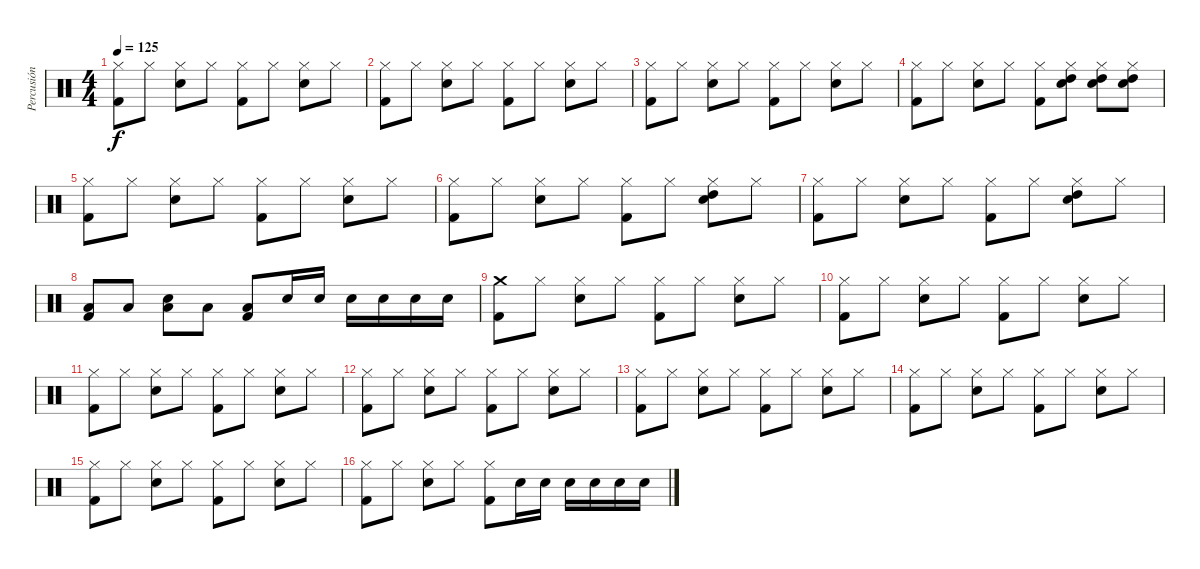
\track ("Percusión" "Percusión") {instrument percussion}
\staff {score}
\articulation defaults
\ts (4 4)
\tempo 125
\clef neutral
\ks c
("Hi-Hat (closed)" "Kick (hit) 2").8{dy f} "Hi-Hat (closed)".8 ("Hi-Hat (closed)" "Snare (hit) 2").8 "Hi-Hat (closed)".8 ("Hi-Hat (closed)" "Kick (hit) 2").8 "Hi-Hat (closed)".8 ("Hi-Hat (closed)" "Snare (hit) 2").8 "Hi-Hat (closed)".8 |
("Hi-Hat (closed)" "Kick (hit) 2").8 "Hi-Hat (closed)".8 ("Hi-Hat (closed)" "Snare (hit) 2").8 "Hi-Hat (closed)".8 ("Hi-Hat (closed)" "Kick (hit) 2").8 "Hi-Hat (closed)".8 ("Hi-Hat (closed)" "Snare (hit) 2").8 "Hi-Hat (closed)".8 |
("Hi-Hat (closed)" "Kick (hit) 2").8 "Hi-Hat (closed)".8 ("Hi-Hat (closed)" "Snare (hit) 2").8 "Hi-Hat (closed)".8 ("Hi-Hat (closed)" "Kick (hit) 2").8 "Hi-Hat (closed)".8 ("Hi-Hat (closed)" "Snare (hit) 2").8 "Hi-Hat (closed)".8 |
("Hi-Hat (closed)" "Kick (hit) 2").8 "Hi-Hat (closed)".8 ("Hi-Hat (closed)" "Snare (hit) 2").8 "Hi-Hat (closed)".8 ("Hi-Hat (closed)" "Kick (hit) 2").8 ("Hi-Hat (closed)" "Snare (hit) 2" "High Tom (hit)").8 ("Hi-Hat (closed)" "Snare (hit) 2" "High Tom (hit)").8 ("Hi-Hat (closed)" "Snare (hit) 2" "High Tom (hit)").8 |
("Hi-Hat (closed)" "Kick (hit) 2").8 "Hi-Hat (closed)".8 ("Hi-Hat (closed)" "Snare (hit) 2").8 "Hi-Hat (closed)".8 ("Hi-Hat (closed)" "Kick (hit) 2").8 "Hi-Hat (closed)".8 ("Hi-Hat (closed)" "Snare (hit) 2").8 "Hi-Hat (closed)".8 |
("Hi-Hat (closed)" "Kick (hit) 2").8 "Hi-Hat (closed)".8 ("Hi-Hat (closed)" "Snare (hit) 2").8 "Hi-Hat (closed)".8 ("Hi-Hat (closed)" "Kick (hit) 2").8 "Hi-Hat (closed)".8 ("Hi-Hat (closed)" "Snare (hit) 2" "High Tom (hit)").8 "Hi-Hat (closed)".8 |
("Hi-Hat (closed)" "Kick (hit) 2").8 "Hi-Hat (closed)".8 ("Hi-Hat (closed)" "Snare (hit) 2").8 "Hi-Hat (closed)".8 ("Hi-Hat (closed)" "Kick (hit) 2").8 "Hi-Hat (closed)".8 ("Hi-Hat (closed)" "Snare (hit) 2" "High Tom (hit)").8 "Hi-Hat (closed)".8 |
("Low Tom (hit)" "Kick (hit) 2").8 "Low Tom (hit)".8 ("Low Tom (hit)" "Snare (hit) 2").8 "Low Tom (hit)".8 ("Low Tom (hit)" "Kick (hit) 2").8 "Snare (hit) 2".16 "Snare (hit) 2".16 "Snare (hit) 2".16 "Snare (hit) 2".16 "Snare (hit) 2".16 "Snare (hit) 2".16 |
("Crash medium (hit)" "Kick (hit) 2").8 "Hi-Hat (closed)".8 ("Hi-Hat (closed)" "Snare (hit) 2").8 "Hi-Hat (closed)".8 ("Hi-Hat (closed)" "Kick (hit) 2").8 "Hi-Hat (closed)".8 ("Hi-Hat (closed)" "Snare (hit) 2").8 "Hi-Hat (closed)".8 |
("Hi-Hat (closed)" "Kick (hit) 2").8 "Hi-Hat (closed)".8 ("Hi-Hat (closed)" "Snare (hit) 2").8 "Hi-Hat (closed)".8 ("Hi-Hat (closed)" "Kick (hit) 2").8 "Hi-Hat (closed)".8 ("Hi-Hat (closed)" "Snare (hit) 2").8 "Hi-Hat (closed)".8 |
("Hi-Hat (closed)" "Kick (hit) 2").8 "Hi-Hat (closed)".8 ("Hi-Hat (closed)" "Snare (hit) 2").8 "Hi-Hat (closed)".8 ("Hi-Hat (closed)" "Kick (hit) 2").8 "Hi-Hat (closed)".8 ("Hi-Hat (closed)" "Snare (hit) 2").8 "Hi-Hat (closed)".8 |
("Hi-Hat (closed)" "Kick (hit) 2").8 "Hi-Hat (closed)".8 ("Hi-Hat (closed)" "Snare (hit) 2").8 "Hi-Hat (closed)".8 ("Hi-Hat (closed)" "Kick (hit) 2").8 "Hi-Hat (closed)".8 ("Hi-Hat (closed)" "Snare (hit) 2").8 "Hi-Hat (closed)".8 |
("Hi-Hat (closed)" "Kick (hit) 2").8 "Hi-Hat (closed)".8 ("Hi-Hat (closed)" "Snare (hit) 2").8 "Hi-Hat (closed)".8 ("Hi-Hat (closed)" "Kick (hit) 2").8 "Hi-Hat (closed)".8 ("Hi-Hat (closed)" "Snare (hit) 2").8 "Hi-Hat (closed)".8 |
("Hi-Hat (closed)" "Kick (hit) 2").8 "Hi-Hat (closed)".8 ("Hi-Hat (closed)" "Snare (hit) 2").8 "Hi-Hat (closed)".8 ("Hi-Hat (closed)" "Kick (hit) 2").8 "Hi-Hat (closed)".8 ("Hi-Hat (closed)" "Snare (hit) 2").8 "Hi-Hat (closed)".8 |
("Hi-Hat (closed)" "Kick (hit) 2").8 "Hi-Hat (closed)".8 ("Hi-Hat (closed)" "Snare (hit) 2").8 "Hi-Hat (closed)".8 ("Hi-Hat (closed)" "Kick (hit) 2").8 "Hi-Hat (closed)".8 ("Hi-Hat (closed)" "Snare (hit) 2").8 "Hi-Hat (closed)".8 |
("Hi-Hat (closed)" "Kick (hit) 2").8 "Hi-Hat (closed)".8 ("Hi-Hat (closed)" "Snare (hit) 2").8 "Hi-Hat (closed)".8 ("Hi-Hat (closed)" "Kick (hit) 2").8 "Snare (hit) 2".16 "Snare (hit) 2".16 "Snare (hit) 2".16 "Snare (hit) 2".16 "Snare (hit) 2".16 "Snare (hit) 2".16
